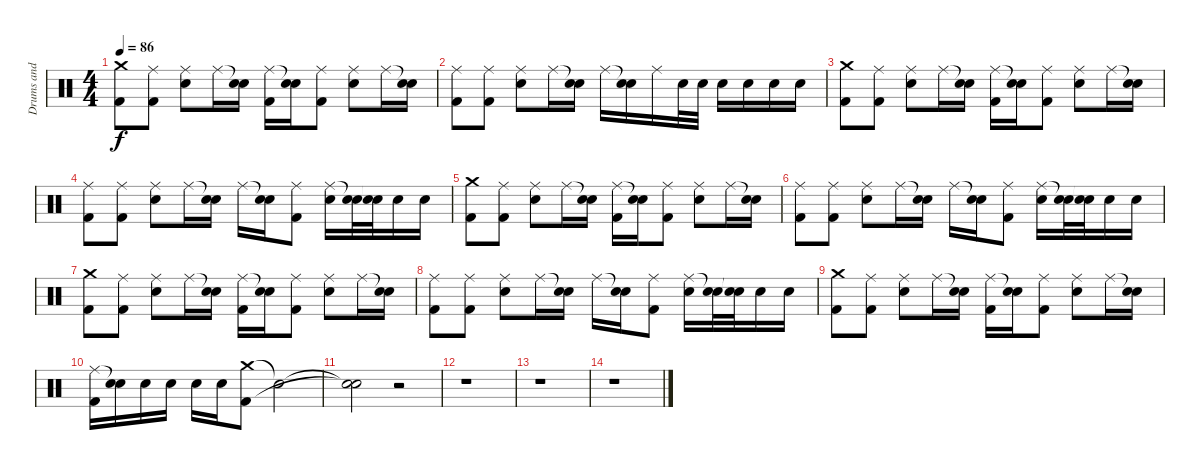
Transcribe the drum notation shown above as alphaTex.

\track ("Drums and Percussion" "Drums and ") {instrument percussion}
\staff {score}
\articulation defaults
\ts (4 4)
\tempo 86
\clef neutral
\ks c
("Crash medium (hit)" "Kick (hit) 2").8{dy f} ("Ride (middle)" "Kick (hit) 2").8 ("Ride (middle)" "Snare (hit) 2").8 "Ride (middle)".16 ("Snare (hit)"{t} "Snare (hit) 2").16 ("Ride (middle)" "Kick (hit) 2").16 ("Snare (hit)"{t} "Snare (hit) 2").16 ("Ride (middle)" "Kick (hit) 2").8 ("Ride (middle)" "Snare (hit) 2").8 "Ride (middle)".16 ("Snare (hit)"{t} "Snare (hit) 2").16 |
("Ride (middle)" "Kick (hit) 2").8 ("Ride (middle)" "Kick (hit) 2").8 ("Ride (middle)" "Snare (hit) 2").8 "Ride (middle)".16 ("Snare (hit)"{t} "Snare (hit) 2").16 "Ride (middle)".16 ("Snare (hit)"{t} "Snare (hit) 2").16 "Ride (middle)".16 "Snare (hit) 2".32 "Snare (hit) 2".32 "Snare (hit) 2".16 "Snare (hit) 2".16 "Snare (hit) 2".16 "Snare (hit) 2".16 |
("Crash medium (hit)" "Kick (hit) 2").8 ("Ride (middle)" "Kick (hit) 2").8 ("Ride (middle)" "Snare (hit) 2").8 "Ride (middle)".16 ("Snare (hit)"{t} "Snare (hit) 2").16 ("Ride (middle)" "Kick (hit) 2").16 ("Snare (hit)"{t} "Snare (hit) 2").16 ("Ride (middle)" "Kick (hit) 2").8 ("Ride (middle)" "Snare (hit) 2").8 "Ride (middle)".16 ("Snare (hit)"{t} "Snare (hit) 2").16 |
("Ride (middle)" "Kick (hit) 2").8 ("Ride (middle)" "Kick (hit) 2").8 ("Ride (middle)" "Snare (hit) 2").8 "Ride (middle)".16 ("Snare (hit)"{t} "Snare (hit) 2").16 "Ride (middle)".16 ("Snare (hit)"{t} "Snare (hit) 2").16 ("Ride (middle)" "Kick (hit) 2").8 ("Ride (middle)" "Snare (hit) 2").16 ("Snare (hit)"{t} "Snare (hit) 2").32 ("Snare (hit)"{t} "Snare (hit) 2").32 "Snare (hit) 2".16 "Snare (hit) 2".16 |
("Crash medium (hit)" "Kick (hit) 2").8 ("Ride (middle)" "Kick (hit) 2").8 ("Ride (middle)" "Snare (hit) 2").8 "Ride (middle)".16 ("Snare (hit)"{t} "Snare (hit) 2").16 ("Ride (middle)" "Kick (hit) 2").16 ("Snare (hit)"{t} "Snare (hit) 2").16 ("Ride (middle)" "Kick (hit) 2").8 ("Ride (middle)" "Snare (hit) 2").8 "Ride (middle)".16 ("Snare (hit)"{t} "Snare (hit) 2").16 |
("Ride (middle)" "Kick (hit) 2").8 ("Ride (middle)" "Kick (hit) 2").8 ("Ride (middle)" "Snare (hit) 2").8 "Ride (middle)".16 ("Snare (hit)"{t} "Snare (hit) 2").16 "Ride (middle)".16 ("Snare (hit)"{t} "Snare (hit) 2").16 ("Ride (middle)" "Kick (hit) 2").8 ("Ride (middle)" "Snare (hit) 2").16 ("Snare (hit)"{t} "Snare (hit) 2").32 ("Snare (hit)"{t} "Snare (hit) 2").32 "Snare (hit) 2".16 "Snare (hit) 2".16 |
("Crash medium (hit)" "Kick (hit) 2").8 ("Ride (middle)" "Kick (hit) 2").8 ("Ride (middle)" "Snare (hit) 2").8 "Ride (middle)".16 ("Snare (hit)"{t} "Snare (hit) 2").16 ("Ride (middle)" "Kick (hit) 2").16 ("Snare (hit)"{t} "Snare (hit) 2").16 ("Ride (middle)" "Kick (hit) 2").8 ("Ride (middle)" "Snare (hit) 2").8 "Ride (middle)".16 ("Snare (hit)"{t} "Snare (hit) 2").16 |
("Ride (middle)" "Kick (hit) 2").8 ("Ride (middle)" "Kick (hit) 2").8 ("Ride (middle)" "Snare (hit) 2").8 "Ride (middle)".16 ("Snare (hit)"{t} "Snare (hit) 2").16 "Ride (middle)".16 ("Snare (hit)"{t} "Snare (hit) 2").16 ("Ride (middle)" "Kick (hit) 2").8 ("Ride (middle)" "Snare (hit) 2").16 ("Snare (hit)"{t} "Snare (hit) 2").32 ("Snare (hit)"{t} "Snare (hit) 2").32 "Snare (hit) 2".16 "Snare (hit) 2".16 |
("Crash medium (hit)" "Kick (hit) 2").8 ("Ride (middle)" "Kick (hit) 2").8 ("Ride (middle)" "Snare (hit) 2").8 "Ride (middle)".16 ("Snare (hit)"{t} "Snare (hit) 2").16 ("Ride (middle)" "Kick (hit) 2").16 ("Snare (hit)"{t} "Snare (hit) 2").16 ("Ride (middle)" "Kick (hit) 2").8 ("Ride (middle)" "Snare (hit) 2").8 "Ride (middle)".16 ("Snare (hit)"{t} "Snare (hit) 2").16 |
("Ride (middle)" "Kick (hit) 2").16 ("Snare (hit)"{t} "Snare (hit) 2").16 "Snare (hit) 2".16 "Snare (hit) 2".16 "Snare (hit) 2".16 "Snare (hit) 2".16 ("Crash medium (hit)" "Kick (hit) 2").8 "Snare (hit)"{t}.2 |
("Snare (hit)"{t} "Snare (hit)"{t}).2 r.2 |
r.1 |
r.1 |
r.1
